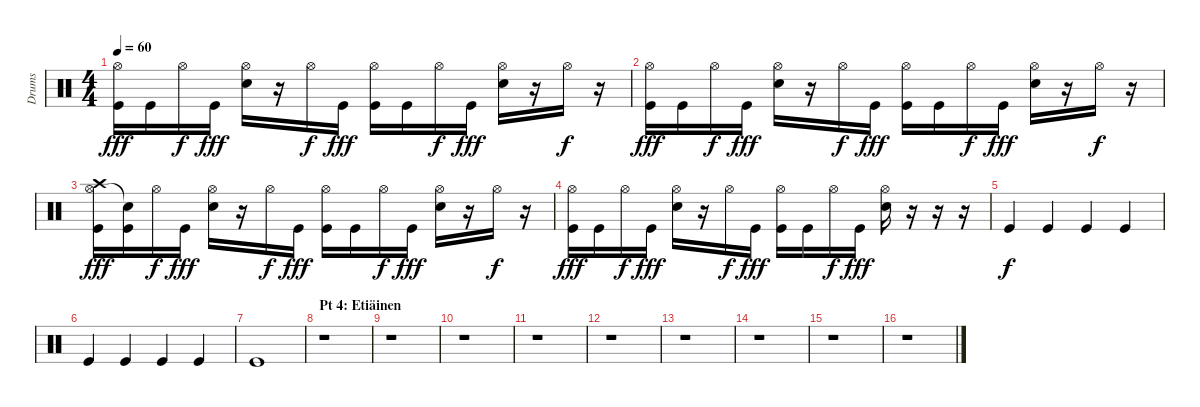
\track ("Drums" "Drums") {instrument percussion}
\staff {score}
\articulation defaults
\ts (4 4)
\tempo 60
\clef neutral
\ks c
("Hi-Hat (open)" "Kick (hit)").16{dy fff} "Kick (hit)".16 "Hi-Hat (open)".16{dy f} "Kick (hit)".16{dy fff} ("Hi-Hat (open)" "Snare (hit) 2").16 r.16 "Hi-Hat (open)".16{dy f} "Kick (hit)".16{dy fff} ("Hi-Hat (open)" "Kick (hit)").16 "Kick (hit)".16 "Hi-Hat (open)".16{dy f} "Kick (hit)".16{dy fff} ("Hi-Hat (open)" "Snare (hit) 2").16 r.16 "Hi-Hat (open)".16{dy f} r.16 |
("Hi-Hat (open)" "Kick (hit)").16{dy fff} "Kick (hit)".16 "Hi-Hat (open)".16{dy f} "Kick (hit)".16{dy fff} ("Hi-Hat (open)" "Snare (hit) 2").16 r.16 "Hi-Hat (open)".16{dy f} "Kick (hit)".16{dy fff} ("Hi-Hat (open)" "Kick (hit)").16 "Kick (hit)".16 "Hi-Hat (open)".16{dy f} "Kick (hit)".16{dy fff} ("Hi-Hat (open)" "Snare (hit) 2").16 r.16 "Hi-Hat (open)".16{dy f} r.16 |
("Hi-Hat (open)" "Crash high (hit)" "Kick (hit)").16{dy fff} ("Snare (hit)"{t} "Kick (hit)").16 "Hi-Hat (open)".16{dy f} "Kick (hit)".16{dy fff} ("Hi-Hat (open)" "Snare (hit) 2").16 r.16 "Hi-Hat (open)".16{dy f} "Kick (hit)".16{dy fff} ("Hi-Hat (open)" "Kick (hit)").16 "Kick (hit)".16 "Hi-Hat (open)".16{dy f} "Kick (hit)".16{dy fff} ("Hi-Hat (open)" "Snare (hit) 2").16 r.16 "Hi-Hat (open)".16{dy f} r.16 |
("Hi-Hat (open)" "Kick (hit)").16{dy fff} "Kick (hit)".16 "Hi-Hat (open)".16{dy f} "Kick (hit)".16{dy fff} ("Hi-Hat (open)" "Snare (hit) 2").16 r.16 "Hi-Hat (open)".16{dy f} "Kick (hit)".16{dy fff} ("Hi-Hat (open)" "Kick (hit)").16 "Kick (hit)".16 "Hi-Hat (open)".16{dy f} "Kick (hit)".16{dy fff} ("Hi-Hat (open)" "Snare (hit) 2").16 r.16 r.16 r.16 |
"Kick (hit)".4{dy f} "Kick (hit)".4 "Kick (hit)".4 "Kick (hit)".4 |
"Kick (hit)".4 "Kick (hit)".4 "Kick (hit)".4 "Kick (hit)".4 |
"Kick (hit)".1 |
\section ("" "Pt 4: Etiäinen")
r.1 |
r.1 |
r.1 |
r.1 |
r.1 |
r.1 |
r.1 |
r.1 |
r.1
